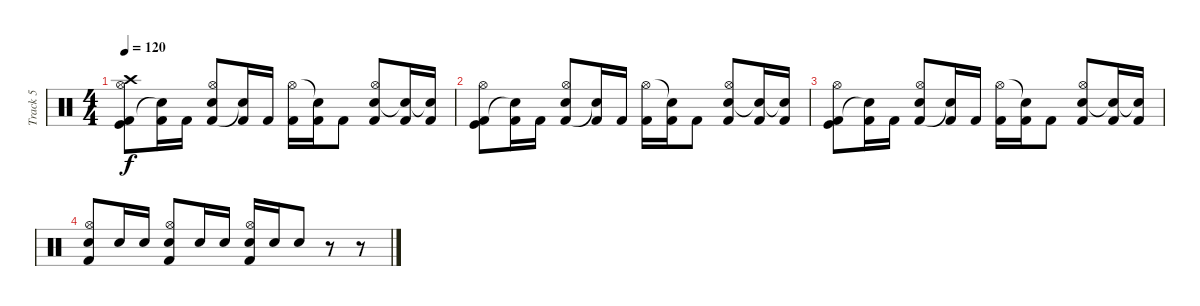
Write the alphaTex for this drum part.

\track ("Track 5" "Track 5") {instrument percussion}
\staff {score}
\articulation defaults
\ts (4 4)
\tempo 120
\clef neutral
\ks c
("Kick (hit)" "Kick (hit) 2" "Hi-Hat (open)" "Crash high (hit)").8{dy f} ("Kick (hit) 2" "Snare (hit)"{t}).16 "Kick (hit) 2".16 ("Snare (hit) 2" "Kick (hit) 2" "Hi-Hat (open)").8 ("Kick (hit) 2" "Snare (hit)"{t}).16 "Kick (hit) 2".16 ("Kick (hit) 2" "Hi-Hat (open)").16 ("Kick (hit) 2" "Snare (hit)"{t}).16 "Kick (hit) 2".8 ("Kick (hit) 2" "Snare (hit) 2" "Hi-Hat (open)").8 ("Kick (hit) 2" "Snare (hit)"{t}).16 ("Kick (hit) 2" "Snare (hit)"{t}).16 |
("Kick (hit)" "Kick (hit) 2" "Hi-Hat (open)").8 ("Kick (hit) 2" "Snare (hit)"{t}).16 "Kick (hit) 2".16 ("Snare (hit) 2" "Kick (hit) 2" "Hi-Hat (open)").8 ("Kick (hit) 2" "Snare (hit)"{t}).16 "Kick (hit) 2".16 ("Kick (hit) 2" "Hi-Hat (open)").16 ("Kick (hit) 2" "Snare (hit)"{t}).16 "Kick (hit) 2".8 ("Kick (hit) 2" "Snare (hit) 2" "Hi-Hat (open)").8 ("Kick (hit) 2" "Snare (hit)"{t}).16 ("Kick (hit) 2" "Snare (hit)"{t}).16 |
("Kick (hit)" "Kick (hit) 2" "Hi-Hat (open)").8 ("Kick (hit) 2" "Snare (hit)"{t}).16 "Kick (hit) 2".16 ("Snare (hit) 2" "Kick (hit) 2" "Hi-Hat (open)").8 ("Kick (hit) 2" "Snare (hit)"{t}).16 "Kick (hit) 2".16 ("Kick (hit) 2" "Hi-Hat (open)").16 ("Kick (hit) 2" "Snare (hit)"{t}).16 "Kick (hit) 2".8 ("Kick (hit) 2" "Snare (hit) 2" "Hi-Hat (open)").8 ("Kick (hit) 2" "Snare (hit)"{t}).16 ("Kick (hit) 2" "Snare (hit)"{t}).16 |
("Snare (hit) 2" "Hi-Hat (open)" "Kick (hit) 2").8 "Snare (hit) 2".16 "Snare (hit) 2".16 ("Snare (hit) 2" "Kick (hit) 2" "Hi-Hat (open)").8 "Snare (hit) 2".16 "Snare (hit) 2".16 ("Snare (hit) 2" "Hi-Hat (open)" "Kick (hit) 2").16 "Snare (hit) 2".16 "Snare (hit) 2".8 r.8 r.8
